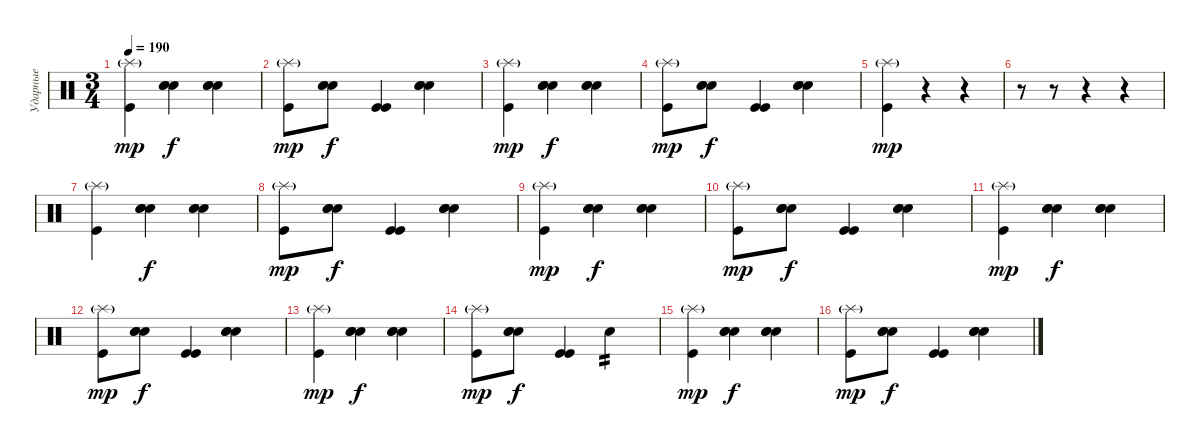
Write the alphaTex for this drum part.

\track ("Ударные" "Ударные") {instrument percussion}
\staff {score}
\articulation defaults
\ts (3 4)
\tempo 190
\clef neutral
\ks c
("Splash (hit)"{g} "Kick (hit)").4{dy mp} ("Snare (hit) 2" "Snare (hit) 2" "Snare (hit) 2").4{dy f} ("Snare (hit) 2" "Snare (hit) 2" "Snare (hit) 2").4 |
("Splash (hit)"{g} "Kick (hit)").8{dy mp} ("Snare (hit) 2" "Snare (hit) 2" "Snare (hit) 2").8{dy f} ("Kick (hit)" "Kick (hit)").4 ("Snare (hit) 2" "Snare (hit) 2" "Snare (hit) 2").4 |
("Splash (hit)"{g} "Kick (hit)").4{dy mp} ("Snare (hit) 2" "Snare (hit) 2" "Snare (hit) 2").4{dy f} ("Snare (hit) 2" "Snare (hit) 2" "Snare (hit) 2").4 |
("Splash (hit)"{g} "Kick (hit)").8{dy mp} ("Snare (hit) 2" "Snare (hit) 2" "Snare (hit) 2").8{dy f} ("Kick (hit)" "Kick (hit)").4 ("Snare (hit) 2" "Snare (hit) 2" "Snare (hit) 2").4 |
("Splash (hit)"{g} "Kick (hit)").4{dy mp} r.4 r.4 |
r.8 r.8 r.4 r.4 |
("Splash (hit)"{g} "Kick (hit)").4 ("Snare (hit) 2" "Snare (hit) 2" "Snare (hit) 2").4{dy f} ("Snare (hit) 2" "Snare (hit) 2" "Snare (hit) 2").4 |
("Splash (hit)"{g} "Kick (hit)").8{dy mp} ("Snare (hit) 2" "Snare (hit) 2" "Snare (hit) 2").8{dy f} ("Kick (hit)" "Kick (hit)").4 ("Snare (hit) 2" "Snare (hit) 2" "Snare (hit) 2").4 |
("Splash (hit)"{g} "Kick (hit)").4{dy mp volume 16} ("Snare (hit) 2" "Snare (hit) 2" "Snare (hit) 2").4{dy f} ("Snare (hit) 2" "Snare (hit) 2" "Snare (hit) 2").4 |
("Splash (hit)"{g} "Kick (hit)").8{dy mp} ("Snare (hit) 2" "Snare (hit) 2" "Snare (hit) 2").8{dy f} ("Kick (hit)" "Kick (hit)").4 ("Snare (hit) 2" "Snare (hit) 2" "Snare (hit) 2").4 |
("Splash (hit)"{g} "Kick (hit)").4{dy mp} ("Snare (hit) 2" "Snare (hit) 2" "Snare (hit) 2").4{dy f} ("Snare (hit) 2" "Snare (hit) 2" "Snare (hit) 2").4 |
("Splash (hit)"{g} "Kick (hit)").8{dy mp} ("Snare (hit) 2" "Snare (hit) 2" "Snare (hit) 2").8{dy f} ("Kick (hit)" "Kick (hit)").4 ("Snare (hit) 2" "Snare (hit) 2" "Snare (hit) 2").4 |
("Splash (hit)"{g} "Kick (hit)").4{dy mp} ("Snare (hit) 2" "Snare (hit) 2" "Snare (hit) 2").4{dy f} ("Snare (hit) 2" "Snare (hit) 2" "Snare (hit) 2").4 |
("Splash (hit)"{g} "Kick (hit)").8{dy mp} ("Snare (hit) 2" "Snare (hit) 2" "Snare (hit) 2").8{dy f} ("Kick (hit)" "Kick (hit)").4 "Snare (hit) 2".4{tp 2} |
("Splash (hit)"{g} "Kick (hit)").4{dy mp volume 16} ("Snare (hit) 2" "Snare (hit) 2" "Snare (hit) 2").4{dy f} ("Snare (hit) 2" "Snare (hit) 2" "Snare (hit) 2").4 |
("Splash (hit)"{g} "Kick (hit)").8{dy mp} ("Snare (hit) 2" "Snare (hit) 2" "Snare (hit) 2").8{dy f} ("Kick (hit)" "Kick (hit)").4 ("Snare (hit) 2" "Snare (hit) 2" "Snare (hit) 2").4
